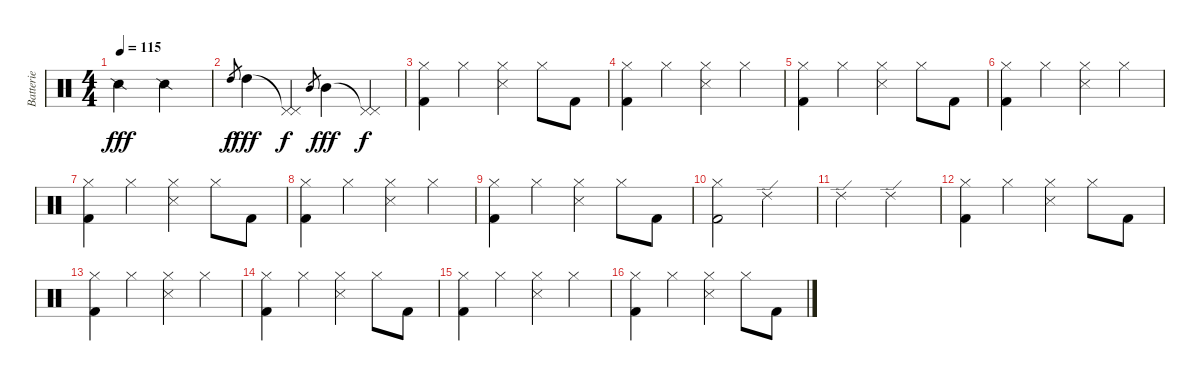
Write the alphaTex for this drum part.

\track ("Batterie" "Batterie") {instrument percussion}
\staff {score}
\articulation defaults
\ts (4 4)
\tempo 115
\clef neutral
\ks c "Snare (side stick) 2".2{dy fff} "Snare (side stick) 2".2
|
"High Tom (hit)"{h}.8{gr dy f} "High Tom (hit)".4{dy fff} ("Pedal Hi-Hat (hit)"{t} "Pedal Hi-Hat (hit)").4{dy f} "Mid Tom (hit)".8{gr} "Mid Tom (hit)".4{dy fff} ("Pedal Hi-Hat (hit)"{t} "Pedal Hi-Hat (hit)").4{dy f} |
("Hi-Hat (closed)" "Kick (hit) 2").4 "Hi-Hat (closed)".4 ("Hi-Hat (closed)" "Snare (side stick) 3").4 "Hi-Hat (closed)".8 "Kick (hit) 2".8 |
("Hi-Hat (closed)" "Kick (hit) 2").4 "Hi-Hat (closed)".4 ("Hi-Hat (closed)" "Snare (side stick) 3").4 "Hi-Hat (closed)".4 |
("Hi-Hat (closed)" "Kick (hit) 2").4 "Hi-Hat (closed)".4 ("Hi-Hat (closed)" "Snare (side stick) 3").4 "Hi-Hat (closed)".8 "Kick (hit) 2".8 |
("Hi-Hat (closed)" "Kick (hit) 2").4 "Hi-Hat (closed)".4 ("Hi-Hat (closed)" "Snare (side stick) 3").4 "Hi-Hat (closed)".4 |
("Hi-Hat (closed)" "Kick (hit) 2").4 "Hi-Hat (closed)".4 ("Hi-Hat (closed)" "Snare (side stick) 3").4 "Hi-Hat (closed)".8 "Kick (hit) 2".8 |
("Hi-Hat (closed)" "Kick (hit) 2").4 "Hi-Hat (closed)".4 ("Hi-Hat (closed)" "Snare (side stick) 3").4 "Hi-Hat (closed)".4 |
("Hi-Hat (closed)" "Kick (hit) 2").4 "Hi-Hat (closed)".4 ("Hi-Hat (closed)" "Snare (side stick) 3").4 "Hi-Hat (closed)".8 "Kick (hit) 2".8 |
("Hi-Hat (closed)" "Kick (hit) 2").2 "Ride (edge) 2".2 |
"Ride (edge) 2".2 "Ride (edge) 2".2 |
("Hi-Hat (closed)" "Kick (hit) 2").4 "Hi-Hat (closed)".4 ("Hi-Hat (closed)" "Snare (side stick) 3").4 "Hi-Hat (closed)".8 "Kick (hit) 2".8 |
("Hi-Hat (closed)" "Kick (hit) 2").4 "Hi-Hat (closed)".4 ("Hi-Hat (closed)" "Snare (side stick) 3").4 "Hi-Hat (closed)".4 |
("Hi-Hat (closed)" "Kick (hit) 2").4 "Hi-Hat (closed)".4 ("Hi-Hat (closed)" "Snare (side stick) 3").4 "Hi-Hat (closed)".8 "Kick (hit) 2".8 |
("Hi-Hat (closed)" "Kick (hit) 2").4 "Hi-Hat (closed)".4 ("Hi-Hat (closed)" "Snare (side stick) 3").4 "Hi-Hat (closed)".4 |
("Hi-Hat (closed)" "Kick (hit) 2").4 "Hi-Hat (closed)".4 ("Hi-Hat (closed)" "Snare (side stick) 3").4 "Hi-Hat (closed)".8 "Kick (hit) 2".8
